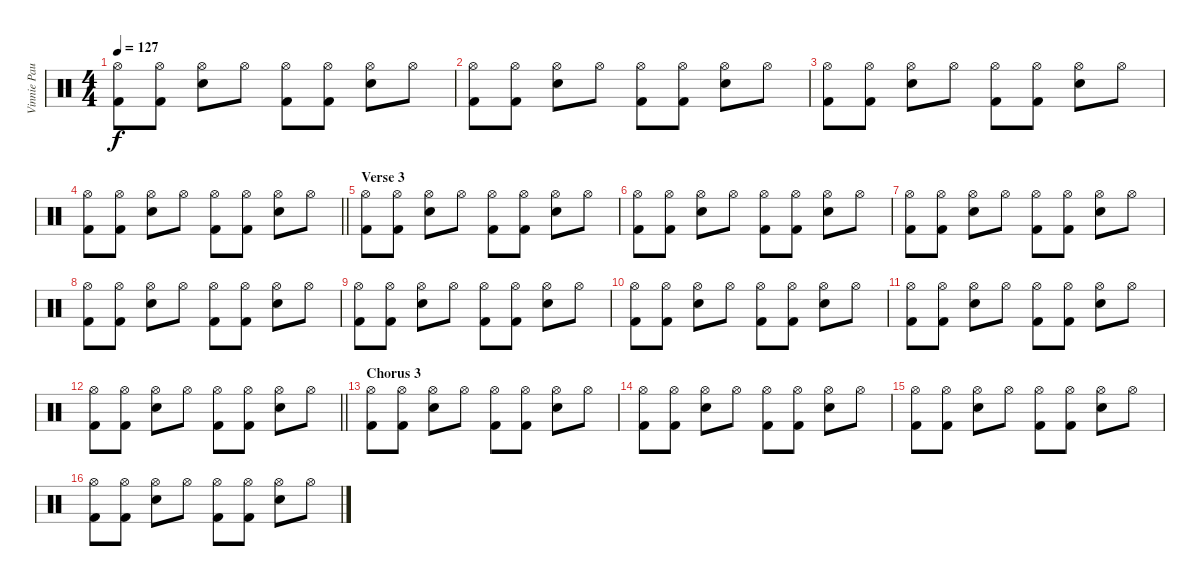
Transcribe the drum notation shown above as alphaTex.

\track ("Vinnie Paul" "Vinnie Pau") {instrument percussion}
\staff {score}
\articulation defaults
\ts (4 4)
\tempo 127
\clef neutral
\ks c
("Kick (hit) 2" "Hi-Hat (open)").8{dy f} ("Kick (hit) 2" "Hi-Hat (open)").8 ("Snare (hit) 2" "Hi-Hat (open)").8 "Hi-Hat (open)".8 ("Kick (hit) 2" "Hi-Hat (open)").8 ("Kick (hit) 2" "Hi-Hat (open)").8 ("Snare (hit) 2" "Hi-Hat (open)").8 "Hi-Hat (open)".8 |
("Kick (hit) 2" "Hi-Hat (open)").8 ("Kick (hit) 2" "Hi-Hat (open)").8 ("Snare (hit) 2" "Hi-Hat (open)").8 "Hi-Hat (open)".8 ("Kick (hit) 2" "Hi-Hat (open)").8 ("Kick (hit) 2" "Hi-Hat (open)").8 ("Snare (hit) 2" "Hi-Hat (open)").8 "Hi-Hat (open)".8 |
("Kick (hit) 2" "Hi-Hat (open)").8 ("Kick (hit) 2" "Hi-Hat (open)").8 ("Snare (hit) 2" "Hi-Hat (open)").8 "Hi-Hat (open)".8 ("Kick (hit) 2" "Hi-Hat (open)").8 ("Kick (hit) 2" "Hi-Hat (open)").8 ("Snare (hit) 2" "Hi-Hat (open)").8 "Hi-Hat (open)".8 |
\barLineRight lightlight
("Kick (hit) 2" "Hi-Hat (open)").8 ("Kick (hit) 2" "Hi-Hat (open)").8 ("Snare (hit) 2" "Hi-Hat (open)").8 "Hi-Hat (open)".8 ("Kick (hit) 2" "Hi-Hat (open)").8 ("Kick (hit) 2" "Hi-Hat (open)").8 ("Snare (hit) 2" "Hi-Hat (open)").8 "Hi-Hat (open)".8 |
\section ("" "Verse 3")
("Kick (hit) 2" "Hi-Hat (open)").8 ("Kick (hit) 2" "Hi-Hat (open)").8 ("Snare (hit) 2" "Hi-Hat (open)").8 "Hi-Hat (open)".8 ("Kick (hit) 2" "Hi-Hat (open)").8 ("Kick (hit) 2" "Hi-Hat (open)").8 ("Snare (hit) 2" "Hi-Hat (open)").8 "Hi-Hat (open)".8 |
("Kick (hit) 2" "Hi-Hat (open)").8 ("Kick (hit) 2" "Hi-Hat (open)").8 ("Snare (hit) 2" "Hi-Hat (open)").8 "Hi-Hat (open)".8 ("Kick (hit) 2" "Hi-Hat (open)").8 ("Kick (hit) 2" "Hi-Hat (open)").8 ("Snare (hit) 2" "Hi-Hat (open)").8 "Hi-Hat (open)".8 |
("Kick (hit) 2" "Hi-Hat (open)").8 ("Kick (hit) 2" "Hi-Hat (open)").8 ("Snare (hit) 2" "Hi-Hat (open)").8 "Hi-Hat (open)".8 ("Kick (hit) 2" "Hi-Hat (open)").8 ("Kick (hit) 2" "Hi-Hat (open)").8 ("Snare (hit) 2" "Hi-Hat (open)").8 "Hi-Hat (open)".8 |
("Kick (hit) 2" "Hi-Hat (open)").8 ("Kick (hit) 2" "Hi-Hat (open)").8 ("Snare (hit) 2" "Hi-Hat (open)").8 "Hi-Hat (open)".8 ("Kick (hit) 2" "Hi-Hat (open)").8 ("Kick (hit) 2" "Hi-Hat (open)").8 ("Snare (hit) 2" "Hi-Hat (open)").8 "Hi-Hat (open)".8 |
("Kick (hit) 2" "Hi-Hat (open)").8 ("Kick (hit) 2" "Hi-Hat (open)").8 ("Snare (hit) 2" "Hi-Hat (open)").8 "Hi-Hat (open)".8 ("Kick (hit) 2" "Hi-Hat (open)").8 ("Kick (hit) 2" "Hi-Hat (open)").8 ("Snare (hit) 2" "Hi-Hat (open)").8 "Hi-Hat (open)".8 |
("Kick (hit) 2" "Hi-Hat (open)").8 ("Kick (hit) 2" "Hi-Hat (open)").8 ("Snare (hit) 2" "Hi-Hat (open)").8 "Hi-Hat (open)".8 ("Kick (hit) 2" "Hi-Hat (open)").8 ("Kick (hit) 2" "Hi-Hat (open)").8 ("Snare (hit) 2" "Hi-Hat (open)").8 "Hi-Hat (open)".8 |
("Kick (hit) 2" "Hi-Hat (open)").8 ("Kick (hit) 2" "Hi-Hat (open)").8 ("Snare (hit) 2" "Hi-Hat (open)").8 "Hi-Hat (open)".8 ("Kick (hit) 2" "Hi-Hat (open)").8 ("Kick (hit) 2" "Hi-Hat (open)").8 ("Snare (hit) 2" "Hi-Hat (open)").8 "Hi-Hat (open)".8 |
\barLineRight lightlight
("Kick (hit) 2" "Hi-Hat (open)").8 ("Kick (hit) 2" "Hi-Hat (open)").8 ("Snare (hit) 2" "Hi-Hat (open)").8 "Hi-Hat (open)".8 ("Kick (hit) 2" "Hi-Hat (open)").8 ("Kick (hit) 2" "Hi-Hat (open)").8 ("Snare (hit) 2" "Hi-Hat (open)").8 "Hi-Hat (open)".8 |
\section ("" "Chorus 3")
("Kick (hit) 2" "Hi-Hat (open)").8 ("Kick (hit) 2" "Hi-Hat (open)").8 ("Snare (hit) 2" "Hi-Hat (open)").8 "Hi-Hat (open)".8 ("Kick (hit) 2" "Hi-Hat (open)").8 ("Kick (hit) 2" "Hi-Hat (open)").8 ("Snare (hit) 2" "Hi-Hat (open)").8 "Hi-Hat (open)".8 |
("Kick (hit) 2" "Hi-Hat (open)").8 ("Kick (hit) 2" "Hi-Hat (open)").8 ("Snare (hit) 2" "Hi-Hat (open)").8 "Hi-Hat (open)".8 ("Kick (hit) 2" "Hi-Hat (open)").8 ("Kick (hit) 2" "Hi-Hat (open)").8 ("Snare (hit) 2" "Hi-Hat (open)").8 "Hi-Hat (open)".8 |
("Kick (hit) 2" "Hi-Hat (open)").8 ("Kick (hit) 2" "Hi-Hat (open)").8 ("Snare (hit) 2" "Hi-Hat (open)").8 "Hi-Hat (open)".8 ("Kick (hit) 2" "Hi-Hat (open)").8 ("Kick (hit) 2" "Hi-Hat (open)").8 ("Snare (hit) 2" "Hi-Hat (open)").8 "Hi-Hat (open)".8 |
("Kick (hit) 2" "Hi-Hat (open)").8 ("Kick (hit) 2" "Hi-Hat (open)").8 ("Snare (hit) 2" "Hi-Hat (open)").8 "Hi-Hat (open)".8 ("Kick (hit) 2" "Hi-Hat (open)").8 ("Kick (hit) 2" "Hi-Hat (open)").8 ("Snare (hit) 2" "Hi-Hat (open)").8 "Hi-Hat (open)".8
